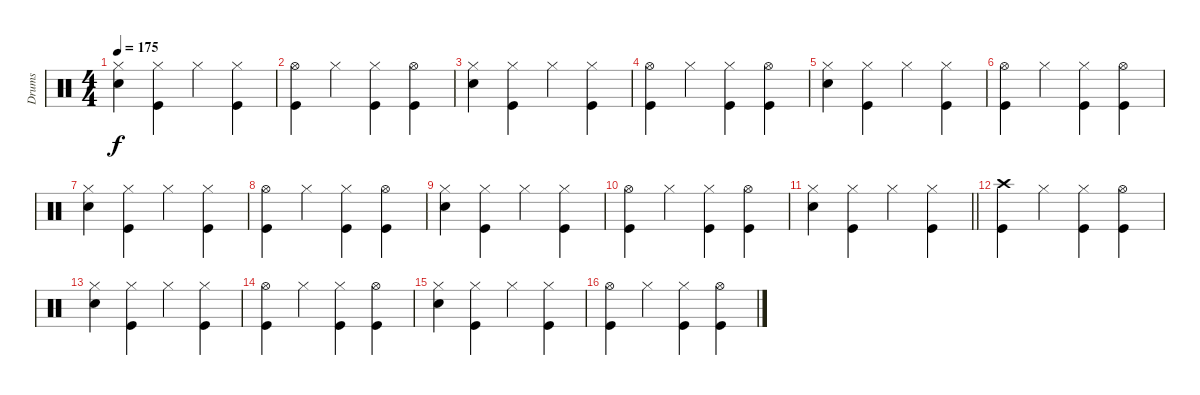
\track ("Drums" "Drums") {instrument percussion}
\staff {score}
\articulation defaults
\ts (4 4)
\tempo 175
\clef neutral
\ks c
("Hi-Hat (closed)" "Electric Snare (hit)").4{dy f} ("Hi-Hat (closed)" "Kick (hit)").4 "Hi-Hat (closed)".4 ("Hi-Hat (closed)" "Kick (hit)").4 |
("Hi-Hat (open)" "Kick (hit)").4 "Hi-Hat (closed)".4 ("Hi-Hat (closed)" "Kick (hit)").4 ("Hi-Hat (open)" "Kick (hit)").4 |
("Hi-Hat (closed)" "Electric Snare (hit)").4 ("Hi-Hat (closed)" "Kick (hit)").4 "Hi-Hat (closed)".4 ("Hi-Hat (closed)" "Kick (hit)").4 |
("Hi-Hat (open)" "Kick (hit)").4 "Hi-Hat (closed)".4 ("Hi-Hat (closed)" "Kick (hit)").4 ("Hi-Hat (open)" "Kick (hit)").4 |
("Hi-Hat (closed)" "Electric Snare (hit)").4 ("Hi-Hat (closed)" "Kick (hit)").4 "Hi-Hat (closed)".4 ("Hi-Hat (closed)" "Kick (hit)").4 |
("Hi-Hat (open)" "Kick (hit)").4 "Hi-Hat (closed)".4 ("Hi-Hat (closed)" "Kick (hit)").4 ("Hi-Hat (open)" "Kick (hit)").4 |
("Hi-Hat (closed)" "Electric Snare (hit)").4 ("Hi-Hat (closed)" "Kick (hit)").4 "Hi-Hat (closed)".4 ("Hi-Hat (closed)" "Kick (hit)").4 |
("Hi-Hat (open)" "Kick (hit)").4 "Hi-Hat (closed)".4 ("Hi-Hat (closed)" "Kick (hit)").4 ("Hi-Hat (open)" "Kick (hit)").4 |
("Hi-Hat (closed)" "Electric Snare (hit)").4 ("Hi-Hat (closed)" "Kick (hit)").4 "Hi-Hat (closed)".4 ("Hi-Hat (closed)" "Kick (hit)").4 |
("Hi-Hat (open)" "Kick (hit)").4 "Hi-Hat (closed)".4 ("Hi-Hat (closed)" "Kick (hit)").4 ("Hi-Hat (open)" "Kick (hit)").4 |
\barLineRight lightlight
("Hi-Hat (closed)" "Electric Snare (hit)").4 ("Hi-Hat (closed)" "Kick (hit)").4 "Hi-Hat (closed)".4 ("Hi-Hat (closed)" "Kick (hit)").4 |
("Crash high (hit)" "Kick (hit)").4 "Hi-Hat (closed)".4 ("Hi-Hat (closed)" "Kick (hit)").4 ("Hi-Hat (open)" "Kick (hit)").4 |
("Hi-Hat (closed)" "Electric Snare (hit)").4 ("Hi-Hat (closed)" "Kick (hit)").4 "Hi-Hat (closed)".4 ("Hi-Hat (closed)" "Kick (hit)").4 |
("Hi-Hat (open)" "Kick (hit)").4 "Hi-Hat (closed)".4 ("Hi-Hat (closed)" "Kick (hit)").4 ("Hi-Hat (open)" "Kick (hit)").4 |
("Hi-Hat (closed)" "Electric Snare (hit)").4 ("Hi-Hat (closed)" "Kick (hit)").4 "Hi-Hat (closed)".4 ("Hi-Hat (closed)" "Kick (hit)").4 |
("Hi-Hat (open)" "Kick (hit)").4 "Hi-Hat (closed)".4 ("Hi-Hat (closed)" "Kick (hit)").4 ("Hi-Hat (open)" "Kick (hit)").4
